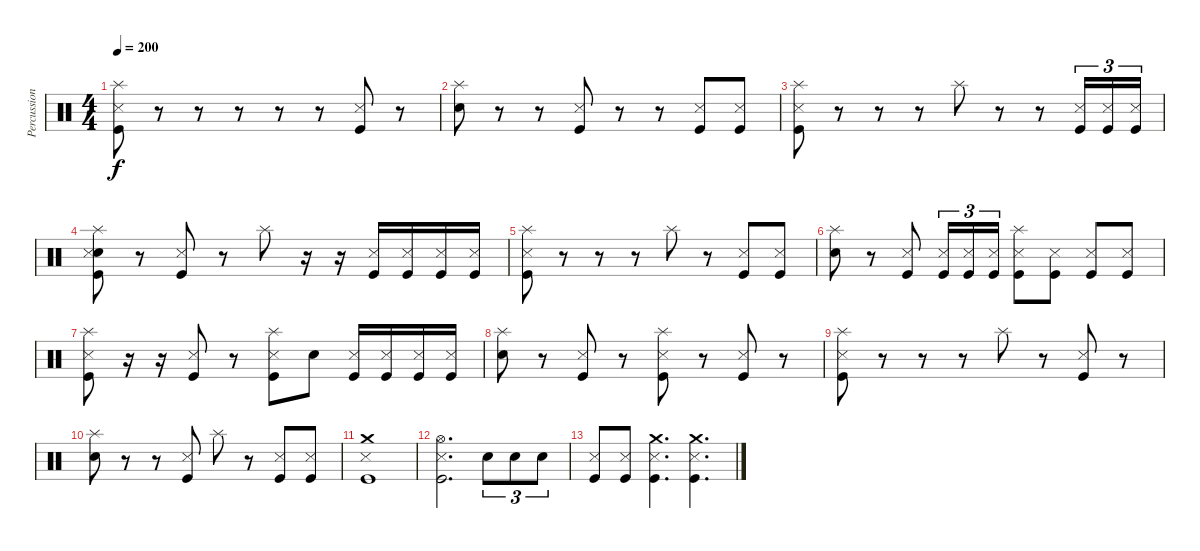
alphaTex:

\track ("Percussion" "Percussion") {instrument percussion}
\staff {score}
\articulation defaults
\ts (4 4)
\tempo 200
\clef neutral
\ks c
("Splash (hit)" "Metronome (hit)" "Kick (hit)").8{dy f} r.8 r.8 r.8 r.8 r.8 ("Kick (hit)" "Metronome (hit)").8 r.8 |
("Splash (hit)" "Electric Snare (hit)").8 r.8 r.8 ("Metronome (hit)" "Kick (hit)").8 r.8 r.8 ("Metronome (hit)" "Kick (hit)").8 ("Metronome (hit)" "Kick (hit)").8 |
("Splash (hit)" "Metronome (hit)" "Kick (hit)").8 r.8 r.8 r.8 "Splash (hit)".8 r.8 r.8 ("Metronome (hit)" "Kick (hit)").16{tu (3 2)} ("Metronome (hit)" "Kick (hit)").16{tu (3 2)} ("Metronome (hit)" "Kick (hit)").16{tu (3 2)} |
("Splash (hit)" "Electric Snare (hit)" "Metronome (hit)" "Kick (hit)").8 r.8 ("Metronome (hit)" "Kick (hit)").8 r.8 "Splash (hit)".8 r.16 r.16 ("Metronome (hit)" "Kick (hit)").16 ("Metronome (hit)" "Kick (hit)").16 ("Metronome (hit)" "Kick (hit)").16 ("Metronome (hit)" "Kick (hit)").16 |
("Splash (hit)" "Metronome (hit)" "Kick (hit)").8 r.8 r.8 r.8 "Splash (hit)".8 r.8 ("Metronome (hit)" "Kick (hit)").8 ("Metronome (hit)" "Kick (hit)").8 |
("Splash (hit)" "Electric Snare (hit)").8 r.8 ("Metronome (hit)" "Kick (hit)").8 ("Metronome (hit)" "Kick (hit)").16{tu (3 2)} ("Metronome (hit)" "Kick (hit)").16{tu (3 2)} ("Metronome (hit)" "Kick (hit)").16{tu (3 2)} ("Splash (hit)" "Metronome (hit)" "Kick (hit)").8 ("Metronome (hit)" "Kick (hit)").8 ("Metronome (hit)" "Kick (hit)").8 ("Metronome (hit)" "Kick (hit)").8 |
("Splash (hit)" "Metronome (hit)" "Kick (hit)").8 r.16 r.16 ("Metronome (hit)" "Kick (hit)").8 r.8 ("Splash (hit)" "Metronome (hit)" "Kick (hit)").8 "Electric Snare (hit)".8 ("Metronome (hit)" "Kick (hit)").16 ("Metronome (hit)" "Kick (hit)").16 ("Metronome (hit)" "Kick (hit)").16 ("Metronome (hit)" "Kick (hit)").16 |
("Splash (hit)" "Electric Snare (hit)").8 r.8 ("Metronome (hit)" "Kick (hit)").8 r.8 ("Splash (hit)" "Metronome (hit)" "Kick (hit)").8 r.8 ("Metronome (hit)" "Kick (hit)").8 r.8 |
("Splash (hit)" "Metronome (hit)" "Kick (hit)").8 r.8 r.8 r.8 "Splash (hit)".8 r.8 ("Kick (hit)" "Metronome (hit)").8 r.8 |
("Splash (hit)" "Electric Snare (hit)").8 r.8 r.8 ("Metronome (hit)" "Kick (hit)").8 "Splash (hit)".8 r.8 ("Metronome (hit)" "Kick (hit)").8 ("Metronome (hit)" "Kick (hit)").8 |
("Crash medium (hit)" "Metronome (hit)" "Kick (hit)").1 |
("Hi-Hat (open)" "Metronome (hit)" "Kick (hit)").2{d} "Electric Snare (hit)".8{tu (3 2)} "Electric Snare (hit)".8{tu (3 2)} "Electric Snare (hit)".8{tu (3 2)} |
("Metronome (hit)" "Kick (hit)").8 ("Metronome (hit)" "Kick (hit)").8 ("Crash medium (hit)" "Metronome (hit)" "Kick (hit)").4{d} ("Crash medium (hit)" "Metronome (hit)" "Kick (hit)").4{d}
